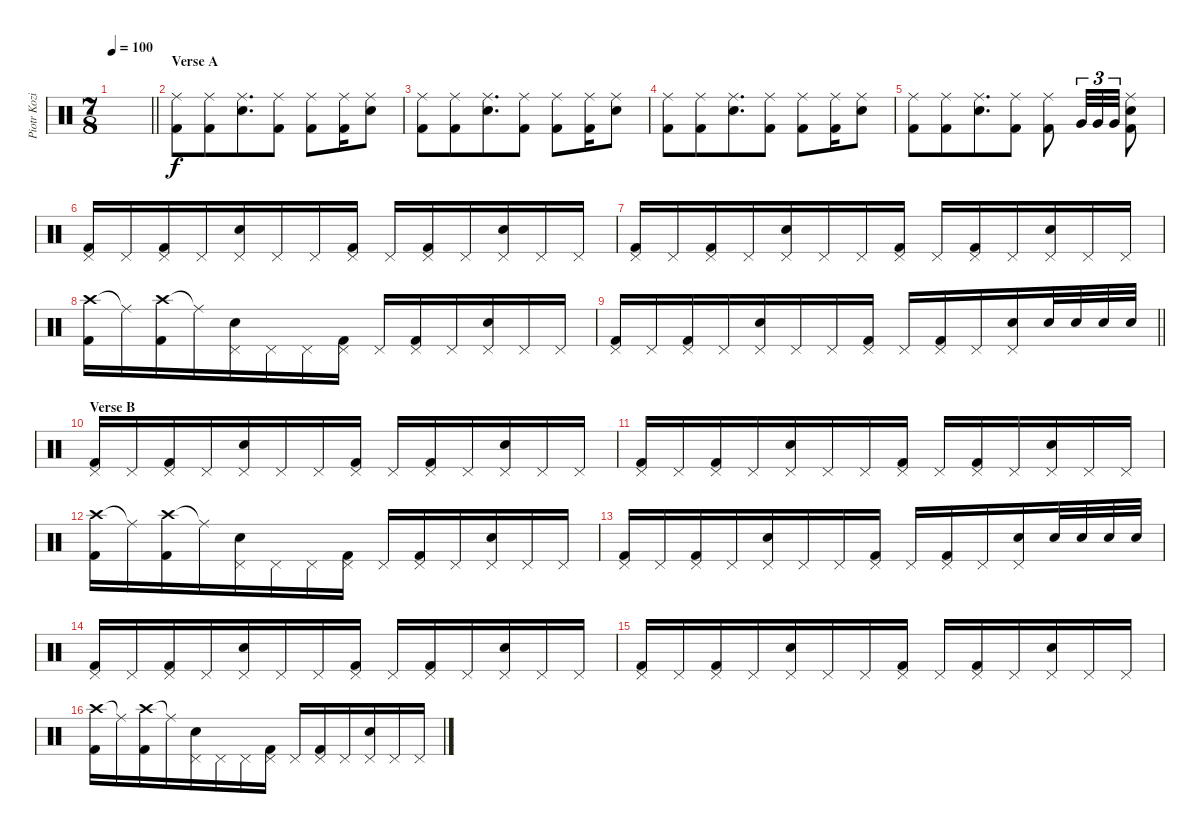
\track ("Piotr Kozieradzki" "Piotr Kozi") {instrument percussion}
\staff {score}
\articulation defaults
\ts (7 8)
\tempo 100
\clef neutral
\barLineRight lightlight
\ks c
|
\section ("" "Verse A")
("Ride (middle)" "Kick (hit) 2").8 ("Ride (middle)" "Kick (hit) 2").8 ("Ride (middle)" "Snare (hit) 2").8{d} ("Ride (middle)" "Kick (hit) 2").8 ("Ride (middle)" "Kick (hit) 2").8 ("Ride (middle)" "Kick (hit) 2").16 ("Ride (middle)" "Snare (hit) 2").8 |
("Ride (middle)" "Kick (hit) 2").8 ("Ride (middle)" "Kick (hit) 2").8 ("Ride (middle)" "Snare (hit) 2").8{d} ("Ride (middle)" "Kick (hit) 2").8 ("Ride (middle)" "Kick (hit) 2").8 ("Ride (middle)" "Kick (hit) 2").16 ("Ride (middle)" "Snare (hit) 2").8 |
("Ride (middle)" "Kick (hit) 2").8 ("Ride (middle)" "Kick (hit) 2").8 ("Ride (middle)" "Snare (hit) 2").8{d} ("Ride (middle)" "Kick (hit) 2").8 ("Ride (middle)" "Kick (hit) 2").8 ("Ride (middle)" "Kick (hit) 2").16 ("Ride (middle)" "Snare (hit) 2").8 |
("Ride (middle)" "Kick (hit) 2").8 ("Ride (middle)" "Kick (hit) 2").8 ("Ride (middle)" "Snare (hit) 2").8{d} ("Ride (middle)" "Kick (hit) 2").8 ("Ride (middle)" "Kick (hit) 2").8 "Very Low Tom (hit)".32{tu (3 2)} "Very Low Tom (hit)".32{tu (3 2)} "Very Low Tom (hit)".32{tu (3 2)} ("Ride (middle)" "Snare (hit) 2" "Kick (hit) 2").8 |
("Pedal Hi-Hat (hit)" "Kick (hit) 2").16 "Pedal Hi-Hat (hit)".16 ("Pedal Hi-Hat (hit)" "Kick (hit) 2").16 "Pedal Hi-Hat (hit)".16 ("Pedal Hi-Hat (hit)" "Snare (hit) 2").16 "Pedal Hi-Hat (hit)".16 "Pedal Hi-Hat (hit)".16 ("Pedal Hi-Hat (hit)" "Kick (hit) 2").16 "Pedal Hi-Hat (hit)".16 ("Pedal Hi-Hat (hit)" "Kick (hit) 2").16 "Pedal Hi-Hat (hit)".16 ("Pedal Hi-Hat (hit)" "Snare (hit) 2").16 "Pedal Hi-Hat (hit)".16 "Pedal Hi-Hat (hit)".16 |
("Pedal Hi-Hat (hit)" "Kick (hit) 2").16 "Pedal Hi-Hat (hit)".16 ("Pedal Hi-Hat (hit)" "Kick (hit) 2").16 "Pedal Hi-Hat (hit)".16 ("Pedal Hi-Hat (hit)" "Snare (hit) 2").16 "Pedal Hi-Hat (hit)".16 "Pedal Hi-Hat (hit)".16 ("Pedal Hi-Hat (hit)" "Kick (hit) 2").16 "Pedal Hi-Hat (hit)".16 ("Pedal Hi-Hat (hit)" "Kick (hit) 2").16 "Pedal Hi-Hat (hit)".16 ("Pedal Hi-Hat (hit)" "Snare (hit) 2").16 "Pedal Hi-Hat (hit)".16 "Pedal Hi-Hat (hit)".16 |
("Crash high (hit)" "Kick (hit) 2").16 "Ride (middle)"{t}.16 ("Crash high (hit)" "Kick (hit) 2").16 "Ride (middle)"{t}.16 ("Pedal Hi-Hat (hit)" "Snare (hit) 2").16 "Pedal Hi-Hat (hit)".16 "Pedal Hi-Hat (hit)".16 ("Pedal Hi-Hat (hit)" "Kick (hit) 2").16 "Pedal Hi-Hat (hit)".16 ("Pedal Hi-Hat (hit)" "Kick (hit) 2").16 "Pedal Hi-Hat (hit)".16 ("Pedal Hi-Hat (hit)" "Snare (hit) 2").16 "Pedal Hi-Hat (hit)".16 "Pedal Hi-Hat (hit)".16 |
\barLineRight lightlight
("Pedal Hi-Hat (hit)" "Kick (hit) 2").16 "Pedal Hi-Hat (hit)".16 ("Pedal Hi-Hat (hit)" "Kick (hit) 2").16 "Pedal Hi-Hat (hit)".16 ("Pedal Hi-Hat (hit)" "Snare (hit) 2").16 "Pedal Hi-Hat (hit)".16 "Pedal Hi-Hat (hit)".16 ("Pedal Hi-Hat (hit)" "Kick (hit) 2").16 "Pedal Hi-Hat (hit)".16 ("Pedal Hi-Hat (hit)" "Kick (hit) 2").16 "Pedal Hi-Hat (hit)".16 ("Pedal Hi-Hat (hit)" "Snare (hit) 2").16 "Snare (hit) 2".32 "Snare (hit) 2".32 "Snare (hit) 2".32 "Snare (hit) 2".32 |
\section ("" "Verse B")
("Pedal Hi-Hat (hit)" "Kick (hit) 2").16 "Pedal Hi-Hat (hit)".16 ("Pedal Hi-Hat (hit)" "Kick (hit) 2").16 "Pedal Hi-Hat (hit)".16 ("Pedal Hi-Hat (hit)" "Snare (hit) 2").16 "Pedal Hi-Hat (hit)".16 "Pedal Hi-Hat (hit)".16 ("Pedal Hi-Hat (hit)" "Kick (hit) 2").16 "Pedal Hi-Hat (hit)".16 ("Pedal Hi-Hat (hit)" "Kick (hit) 2").16 "Pedal Hi-Hat (hit)".16 ("Pedal Hi-Hat (hit)" "Snare (hit) 2").16 "Pedal Hi-Hat (hit)".16 "Pedal Hi-Hat (hit)".16 |
("Pedal Hi-Hat (hit)" "Kick (hit) 2").16 "Pedal Hi-Hat (hit)".16 ("Pedal Hi-Hat (hit)" "Kick (hit) 2").16 "Pedal Hi-Hat (hit)".16 ("Pedal Hi-Hat (hit)" "Snare (hit) 2").16 "Pedal Hi-Hat (hit)".16 "Pedal Hi-Hat (hit)".16 ("Pedal Hi-Hat (hit)" "Kick (hit) 2").16 "Pedal Hi-Hat (hit)".16 ("Pedal Hi-Hat (hit)" "Kick (hit) 2").16 "Pedal Hi-Hat (hit)".16 ("Pedal Hi-Hat (hit)" "Snare (hit) 2").16 "Pedal Hi-Hat (hit)".16 "Pedal Hi-Hat (hit)".16 |
("Crash high (hit)" "Kick (hit) 2").16 "Ride (middle)"{t}.16 ("Crash high (hit)" "Kick (hit) 2").16 "Ride (middle)"{t}.16 ("Pedal Hi-Hat (hit)" "Snare (hit) 2").16 "Pedal Hi-Hat (hit)".16 "Pedal Hi-Hat (hit)".16 ("Pedal Hi-Hat (hit)" "Kick (hit) 2").16 "Pedal Hi-Hat (hit)".16 ("Pedal Hi-Hat (hit)" "Kick (hit) 2").16 "Pedal Hi-Hat (hit)".16 ("Pedal Hi-Hat (hit)" "Snare (hit) 2").16 "Pedal Hi-Hat (hit)".16 "Pedal Hi-Hat (hit)".16 |
("Pedal Hi-Hat (hit)" "Kick (hit) 2").16 "Pedal Hi-Hat (hit)".16 ("Pedal Hi-Hat (hit)" "Kick (hit) 2").16 "Pedal Hi-Hat (hit)".16 ("Pedal Hi-Hat (hit)" "Snare (hit) 2").16 "Pedal Hi-Hat (hit)".16 "Pedal Hi-Hat (hit)".16 ("Pedal Hi-Hat (hit)" "Kick (hit) 2").16 "Pedal Hi-Hat (hit)".16 ("Pedal Hi-Hat (hit)" "Kick (hit) 2").16 "Pedal Hi-Hat (hit)".16 ("Pedal Hi-Hat (hit)" "Snare (hit) 2").16 "Snare (hit) 2".32 "Snare (hit) 2".32 "Snare (hit) 2".32 "Snare (hit) 2".32 |
("Pedal Hi-Hat (hit)" "Kick (hit) 2").16 "Pedal Hi-Hat (hit)".16 ("Pedal Hi-Hat (hit)" "Kick (hit) 2").16 "Pedal Hi-Hat (hit)".16 ("Pedal Hi-Hat (hit)" "Snare (hit) 2").16 "Pedal Hi-Hat (hit)".16 "Pedal Hi-Hat (hit)".16 ("Pedal Hi-Hat (hit)" "Kick (hit) 2").16 "Pedal Hi-Hat (hit)".16 ("Pedal Hi-Hat (hit)" "Kick (hit) 2").16 "Pedal Hi-Hat (hit)".16 ("Pedal Hi-Hat (hit)" "Snare (hit) 2").16 "Pedal Hi-Hat (hit)".16 "Pedal Hi-Hat (hit)".16 |
("Pedal Hi-Hat (hit)" "Kick (hit) 2").16 "Pedal Hi-Hat (hit)".16 ("Pedal Hi-Hat (hit)" "Kick (hit) 2").16 "Pedal Hi-Hat (hit)".16 ("Pedal Hi-Hat (hit)" "Snare (hit) 2").16 "Pedal Hi-Hat (hit)".16 "Pedal Hi-Hat (hit)".16 ("Pedal Hi-Hat (hit)" "Kick (hit) 2").16 "Pedal Hi-Hat (hit)".16 ("Pedal Hi-Hat (hit)" "Kick (hit) 2").16 "Pedal Hi-Hat (hit)".16 ("Pedal Hi-Hat (hit)" "Snare (hit) 2").16 "Pedal Hi-Hat (hit)".16 "Pedal Hi-Hat (hit)".16 |
("Crash high (hit)" "Kick (hit) 2").16 "Ride (middle)"{t}.16 ("Crash high (hit)" "Kick (hit) 2").16 "Ride (middle)"{t}.16 ("Pedal Hi-Hat (hit)" "Snare (hit) 2").16 "Pedal Hi-Hat (hit)".16 "Pedal Hi-Hat (hit)".16 ("Pedal Hi-Hat (hit)" "Kick (hit) 2").16 "Pedal Hi-Hat (hit)".16 ("Pedal Hi-Hat (hit)" "Kick (hit) 2").16 "Pedal Hi-Hat (hit)".16 ("Pedal Hi-Hat (hit)" "Snare (hit) 2").16 "Pedal Hi-Hat (hit)".16 "Pedal Hi-Hat (hit)".16
